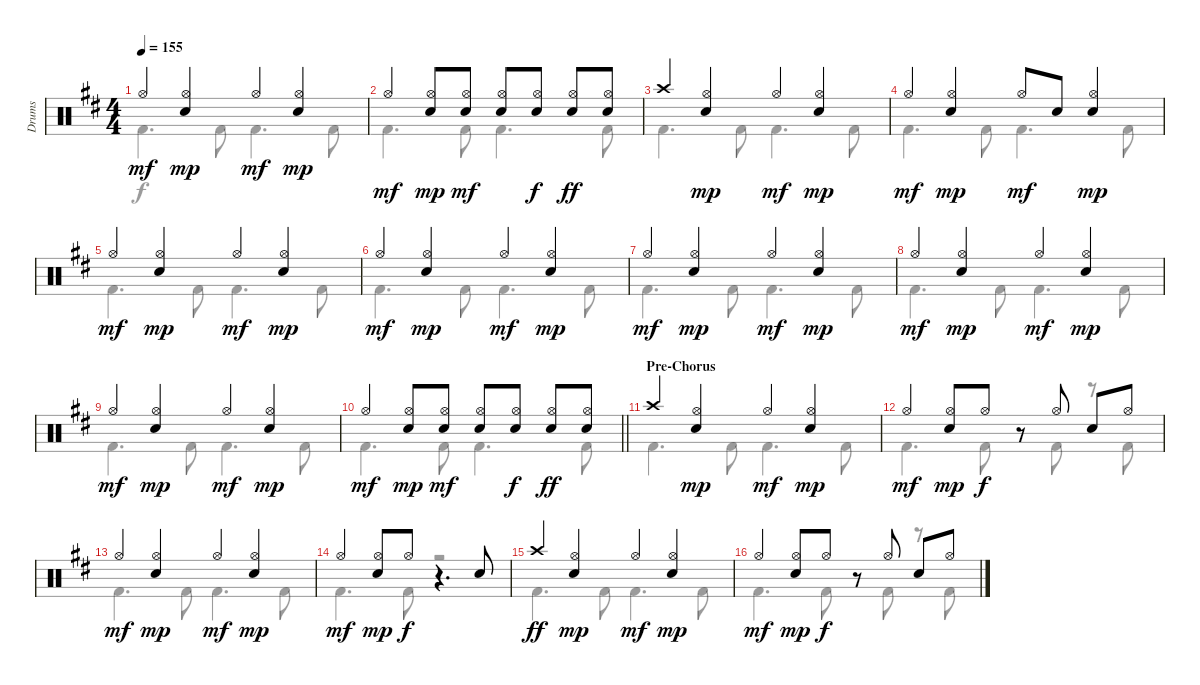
\track ("Drums" "Drums") {instrument percussion}
\staff {score}
\articulation defaults
\voice
\ts (4 4)
\tempo 155
\clef neutral
\ks d "Hi-Hat (open)".4{dy mf}
("Hi-Hat (open)" "Electric Snare (hit)").4{dy mp} "Hi-Hat (open)".4{dy mf} ("Hi-Hat (open)" "Electric Snare (hit)").4{dy mp} |
"Hi-Hat (open)".4{dy mf} ("Hi-Hat (open)" "Electric Snare (hit)").8{dy mp} ("Hi-Hat (open)" "Electric Snare (hit)").8{dy mf} ("Hi-Hat (open)" "Electric Snare (hit)").8 ("Hi-Hat (open)" "Electric Snare (hit)").8{dy f} ("Hi-Hat (open)" "Electric Snare (hit)").8{dy ff} ("Hi-Hat (open)" "Electric Snare (hit)").8 |
"Crash high (hit)".4 ("Hi-Hat (open)" "Electric Snare (hit)").4{dy mp} "Hi-Hat (open)".4{dy mf} ("Hi-Hat (open)" "Electric Snare (hit)").4{dy mp} |
"Hi-Hat (open)".4{dy mf} ("Hi-Hat (open)" "Electric Snare (hit)").4{dy mp} "Hi-Hat (open)".8{dy mf} "Electric Snare (hit)".8 ("Hi-Hat (open)" "Electric Snare (hit)").4{dy mp} |
"Hi-Hat (open)".4{dy mf} ("Hi-Hat (open)" "Electric Snare (hit)").4{dy mp} "Hi-Hat (open)".4{dy mf} ("Hi-Hat (open)" "Electric Snare (hit)").4{dy mp} |
"Hi-Hat (open)".4{dy mf} ("Hi-Hat (open)" "Electric Snare (hit)").4{dy mp} "Hi-Hat (open)".4{dy mf} ("Hi-Hat (open)" "Electric Snare (hit)").4{dy mp} |
"Hi-Hat (open)".4{dy mf} ("Hi-Hat (open)" "Electric Snare (hit)").4{dy mp} "Hi-Hat (open)".4{dy mf} ("Hi-Hat (open)" "Electric Snare (hit)").4{dy mp} |
"Hi-Hat (open)".4{dy mf} ("Hi-Hat (open)" "Electric Snare (hit)").4{dy mp} "Hi-Hat (open)".4{dy mf} ("Hi-Hat (open)" "Electric Snare (hit)").4{dy mp} |
"Hi-Hat (open)".4{dy mf} ("Hi-Hat (open)" "Electric Snare (hit)").4{dy mp} "Hi-Hat (open)".4{dy mf} ("Hi-Hat (open)" "Electric Snare (hit)").4{dy mp} |
\barLineRight lightlight "Hi-Hat (open)".4{dy mf}
("Hi-Hat (open)" "Electric Snare (hit)").8{dy mp} ("Hi-Hat (open)" "Electric Snare (hit)").8{dy mf} ("Hi-Hat (open)" "Electric Snare (hit)").8 ("Hi-Hat (open)" "Electric Snare (hit)").8{dy f} ("Hi-Hat (open)" "Electric Snare (hit)").8{dy ff} ("Hi-Hat (open)" "Electric Snare (hit)").8 |
\section ("" "Pre-Chorus")
"Crash high (hit)".4 ("Hi-Hat (open)" "Electric Snare (hit)").4{dy mp} "Hi-Hat (open)".4{dy mf} ("Hi-Hat (open)" "Electric Snare (hit)").4{dy mp} |
"Hi-Hat (open)".4{dy mf} ("Hi-Hat (open)" "Electric Snare (hit)").8{dy mp} "Hi-Hat (open)".8{dy f} r.8 "Hi-Hat (open)".8 "Electric Snare (hit)".8 "Hi-Hat (open)".8 |
"Hi-Hat (open)".4{dy mf} ("Hi-Hat (open)" "Electric Snare (hit)").4{dy mp} "Hi-Hat (open)".4{dy mf} ("Hi-Hat (open)" "Electric Snare (hit)").4{dy mp} |
"Hi-Hat (open)".4{dy mf} ("Hi-Hat (open)" "Electric Snare (hit)").8{dy mp} "Hi-Hat (open)".8{dy f} r.4{d} "Electric Snare (hit)".8 |
"Crash high (hit)".4{dy ff} ("Hi-Hat (open)" "Electric Snare (hit)").4{dy mp} "Hi-Hat (open)".4{dy mf} ("Hi-Hat (open)" "Electric Snare (hit)").4{dy mp} |
"Hi-Hat (open)".4{dy mf} ("Hi-Hat (open)" "Electric Snare (hit)").8{dy mp} "Hi-Hat (open)".8{dy f} r.8 "Hi-Hat (open)".8 "Electric Snare (hit)".8 "Hi-Hat (open)".8
\voice
\clef neutral
\ottava regular
\simile none
\ks d "Kick (hit) 2".4{d dy f} "Kick (hit) 2".8 "Kick (hit) 2".4{d} "Kick (hit) 2".8
|
"Kick (hit) 2".4{d} "Kick (hit) 2".8 "Kick (hit) 2".4{d} "Kick (hit) 2".8 |
"Kick (hit) 2".4{d} "Kick (hit) 2".8 "Kick (hit) 2".4{d} "Kick (hit) 2".8 |
"Kick (hit) 2".4{d} "Kick (hit) 2".8 "Kick (hit) 2".4{d} "Kick (hit) 2".8 |
"Kick (hit) 2".4{d} "Kick (hit) 2".8 "Kick (hit) 2".4{d} "Kick (hit) 2".8 |
"Kick (hit) 2".4{d} "Kick (hit) 2".8 "Kick (hit) 2".4{d} "Kick (hit) 2".8 |
"Kick (hit) 2".4{d} "Kick (hit) 2".8 "Kick (hit) 2".4{d} "Kick (hit) 2".8 |
"Kick (hit) 2".4{d} "Kick (hit) 2".8 "Kick (hit) 2".4{d} "Kick (hit) 2".8 |
"Kick (hit) 2".4{d} "Kick (hit) 2".8 "Kick (hit) 2".4{d} "Kick (hit) 2".8 |
\barLineRight lightlight "Kick (hit) 2".4{d} "Kick (hit) 2".8 "Kick (hit) 2".4{d} "Kick (hit) 2".8
|
"Kick (hit) 2".4{d} "Kick (hit) 2".8 "Kick (hit) 2".4{d} "Kick (hit) 2".8 |
"Kick (hit) 2".4{d} "Kick (hit) 2".8 r.8 "Kick (hit) 2".8 r.8 "Kick (hit) 2".8 |
"Kick (hit) 2".4{d} "Kick (hit) 2".8 "Kick (hit) 2".4{d} "Kick (hit) 2".8 |
"Kick (hit) 2".4{d} "Kick (hit) 2".8 r.2 |
"Kick (hit) 2".4{d} "Kick (hit) 2".8 "Kick (hit) 2".4{d} "Kick (hit) 2".8 |
"Kick (hit) 2".4{d} "Kick (hit) 2".8 r.8 "Kick (hit) 2".8 r.8 "Kick (hit) 2".8
